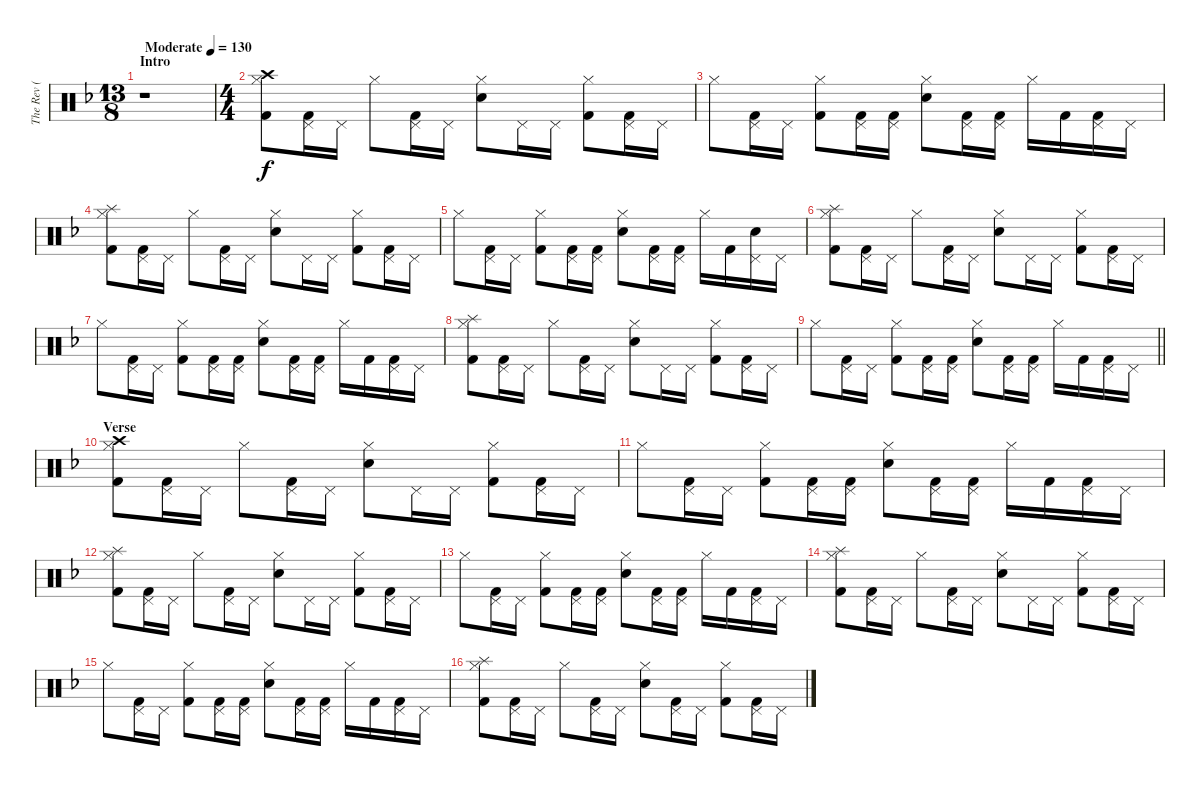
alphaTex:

\track ("The Rev ( Drums )" "The Rev ( ") {instrument percussion}
\staff {score}
\articulation defaults
\ts (13 8)
\section ("" "Intro")
\tempo (130 "Moderate")
\clef neutral
\ks f
r.1{dy f} |
\ts (4 4)
("Crash high (hit)" "Hi-Hat (closed)" "Kick (hit) 2").8 ("Pedal Hi-Hat (hit)" "Kick (hit) 2").16 "Pedal Hi-Hat (hit)".16 "Hi-Hat (closed)".8 ("Pedal Hi-Hat (hit)" "Kick (hit) 2").16 "Pedal Hi-Hat (hit)".16 ("Hi-Hat (closed)" "Snare (hit) 2").8 "Pedal Hi-Hat (hit)".16 "Pedal Hi-Hat (hit)".16 ("Hi-Hat (closed)" "Kick (hit) 2").8 ("Pedal Hi-Hat (hit)" "Kick (hit) 2").16 "Pedal Hi-Hat (hit)".16 |
"Hi-Hat (closed)".8 ("Pedal Hi-Hat (hit)" "Kick (hit) 2").16 "Pedal Hi-Hat (hit)".16 ("Hi-Hat (closed)" "Kick (hit) 2").8 ("Pedal Hi-Hat (hit)" "Kick (hit) 2").16 ("Pedal Hi-Hat (hit)" "Kick (hit) 2").16 ("Hi-Hat (closed)" "Snare (hit) 2").8 ("Pedal Hi-Hat (hit)" "Kick (hit) 2").16 ("Pedal Hi-Hat (hit)" "Kick (hit) 2").16 "Hi-Hat (closed)".16 "Kick (hit) 2".16 ("Pedal Hi-Hat (hit)" "Kick (hit) 2").16 "Pedal Hi-Hat (hit)".16 |
("Splash (hit)" "Hi-Hat (closed)" "Kick (hit) 2").8 ("Pedal Hi-Hat (hit)" "Kick (hit) 2").16 "Pedal Hi-Hat (hit)".16 "Hi-Hat (closed)".8 ("Pedal Hi-Hat (hit)" "Kick (hit) 2").16 "Pedal Hi-Hat (hit)".16 ("Hi-Hat (closed)" "Snare (hit) 2").8 "Pedal Hi-Hat (hit)".16 "Pedal Hi-Hat (hit)".16 ("Hi-Hat (closed)" "Kick (hit) 2").8 ("Pedal Hi-Hat (hit)" "Kick (hit) 2").16 "Pedal Hi-Hat (hit)".16 |
"Hi-Hat (closed)".8 ("Pedal Hi-Hat (hit)" "Kick (hit) 2").16 "Pedal Hi-Hat (hit)".16 ("Hi-Hat (closed)" "Kick (hit) 2").8 ("Pedal Hi-Hat (hit)" "Kick (hit) 2").16 ("Pedal Hi-Hat (hit)" "Kick (hit) 2").16 ("Hi-Hat (closed)" "Snare (hit) 2").8 ("Pedal Hi-Hat (hit)" "Kick (hit) 2").16 ("Pedal Hi-Hat (hit)" "Kick (hit) 2").16 "Hi-Hat (closed)".16 "Kick (hit) 2".16 ("Pedal Hi-Hat (hit)" "Snare (hit) 2").16 "Pedal Hi-Hat (hit)".16 |
("Splash (hit)" "Hi-Hat (closed)" "Kick (hit) 2").8 ("Pedal Hi-Hat (hit)" "Kick (hit) 2").16 "Pedal Hi-Hat (hit)".16 "Hi-Hat (closed)".8 ("Pedal Hi-Hat (hit)" "Kick (hit) 2").16 "Pedal Hi-Hat (hit)".16 ("Hi-Hat (closed)" "Snare (hit) 2").8 "Pedal Hi-Hat (hit)".16 "Pedal Hi-Hat (hit)".16 ("Hi-Hat (closed)" "Kick (hit) 2").8 ("Pedal Hi-Hat (hit)" "Kick (hit) 2").16 "Pedal Hi-Hat (hit)".16 |
"Hi-Hat (closed)".8 ("Pedal Hi-Hat (hit)" "Kick (hit) 2").16 "Pedal Hi-Hat (hit)".16 ("Hi-Hat (closed)" "Kick (hit) 2").8 ("Pedal Hi-Hat (hit)" "Kick (hit) 2").16 ("Pedal Hi-Hat (hit)" "Kick (hit) 2").16 ("Hi-Hat (closed)" "Snare (hit) 2").8 ("Pedal Hi-Hat (hit)" "Kick (hit) 2").16 ("Pedal Hi-Hat (hit)" "Kick (hit) 2").16 "Hi-Hat (closed)".16 "Kick (hit) 2".16 ("Pedal Hi-Hat (hit)" "Kick (hit) 2").16 "Pedal Hi-Hat (hit)".16 |
("Splash (hit)" "Hi-Hat (closed)" "Kick (hit) 2").8 ("Pedal Hi-Hat (hit)" "Kick (hit) 2").16 "Pedal Hi-Hat (hit)".16 "Hi-Hat (closed)".8 ("Pedal Hi-Hat (hit)" "Kick (hit) 2").16 "Pedal Hi-Hat (hit)".16 ("Hi-Hat (closed)" "Snare (hit) 2").8 "Pedal Hi-Hat (hit)".16 "Pedal Hi-Hat (hit)".16 ("Hi-Hat (closed)" "Kick (hit) 2").8 ("Pedal Hi-Hat (hit)" "Kick (hit) 2").16 "Pedal Hi-Hat (hit)".16 |
\barLineRight lightlight "Hi-Hat (closed)".8
("Pedal Hi-Hat (hit)" "Kick (hit) 2").16 "Pedal Hi-Hat (hit)".16 ("Hi-Hat (closed)" "Kick (hit) 2").8 ("Pedal Hi-Hat (hit)" "Kick (hit) 2").16 ("Pedal Hi-Hat (hit)" "Kick (hit) 2").16 ("Hi-Hat (closed)" "Snare (hit) 2").8 ("Pedal Hi-Hat (hit)" "Kick (hit) 2").16 ("Pedal Hi-Hat (hit)" "Kick (hit) 2").16 "Hi-Hat (closed)".16 "Kick (hit) 2".16 ("Pedal Hi-Hat (hit)" "Kick (hit) 2").16 "Pedal Hi-Hat (hit)".16 |
\section ("" "Verse")
("Crash high (hit)" "Hi-Hat (closed)" "Kick (hit) 2").8 ("Pedal Hi-Hat (hit)" "Kick (hit) 2").16 "Pedal Hi-Hat (hit)".16 "Hi-Hat (closed)".8 ("Pedal Hi-Hat (hit)" "Kick (hit) 2").16 "Pedal Hi-Hat (hit)".16 ("Hi-Hat (closed)" "Snare (hit) 2").8 "Pedal Hi-Hat (hit)".16 "Pedal Hi-Hat (hit)".16 ("Hi-Hat (closed)" "Kick (hit) 2").8 ("Pedal Hi-Hat (hit)" "Kick (hit) 2").16 "Pedal Hi-Hat (hit)".16 |
"Hi-Hat (closed)".8 ("Pedal Hi-Hat (hit)" "Kick (hit) 2").16 "Pedal Hi-Hat (hit)".16 ("Hi-Hat (closed)" "Kick (hit) 2").8 ("Pedal Hi-Hat (hit)" "Kick (hit) 2").16 ("Pedal Hi-Hat (hit)" "Kick (hit) 2").16 ("Hi-Hat (closed)" "Snare (hit) 2").8 ("Pedal Hi-Hat (hit)" "Kick (hit) 2").16 ("Pedal Hi-Hat (hit)" "Kick (hit) 2").16 "Hi-Hat (closed)".16 "Kick (hit) 2".16 ("Pedal Hi-Hat (hit)" "Kick (hit) 2").16 "Pedal Hi-Hat (hit)".16 |
("Splash (hit)" "Hi-Hat (closed)" "Kick (hit) 2").8 ("Pedal Hi-Hat (hit)" "Kick (hit) 2").16 "Pedal Hi-Hat (hit)".16 "Hi-Hat (closed)".8 ("Pedal Hi-Hat (hit)" "Kick (hit) 2").16 "Pedal Hi-Hat (hit)".16 ("Hi-Hat (closed)" "Snare (hit) 2").8 "Pedal Hi-Hat (hit)".16 "Pedal Hi-Hat (hit)".16 ("Hi-Hat (closed)" "Kick (hit) 2").8 ("Pedal Hi-Hat (hit)" "Kick (hit) 2").16 "Pedal Hi-Hat (hit)".16 |
"Hi-Hat (closed)".8 ("Pedal Hi-Hat (hit)" "Kick (hit) 2").16 "Pedal Hi-Hat (hit)".16 ("Hi-Hat (closed)" "Kick (hit) 2").8 ("Pedal Hi-Hat (hit)" "Kick (hit) 2").16 ("Pedal Hi-Hat (hit)" "Kick (hit) 2").16 ("Hi-Hat (closed)" "Snare (hit) 2").8 ("Pedal Hi-Hat (hit)" "Kick (hit) 2").16 ("Pedal Hi-Hat (hit)" "Kick (hit) 2").16 "Hi-Hat (closed)".16 "Kick (hit) 2".16 ("Pedal Hi-Hat (hit)" "Kick (hit) 2").16 "Pedal Hi-Hat (hit)".16 |
("Splash (hit)" "Hi-Hat (closed)" "Kick (hit) 2").8 ("Pedal Hi-Hat (hit)" "Kick (hit) 2").16 "Pedal Hi-Hat (hit)".16 "Hi-Hat (closed)".8 ("Pedal Hi-Hat (hit)" "Kick (hit) 2").16 "Pedal Hi-Hat (hit)".16 ("Hi-Hat (closed)" "Snare (hit) 2").8 "Pedal Hi-Hat (hit)".16 "Pedal Hi-Hat (hit)".16 ("Hi-Hat (closed)" "Kick (hit) 2").8 ("Pedal Hi-Hat (hit)" "Kick (hit) 2").16 "Pedal Hi-Hat (hit)".16 |
"Hi-Hat (closed)".8 ("Pedal Hi-Hat (hit)" "Kick (hit) 2").16 "Pedal Hi-Hat (hit)".16 ("Hi-Hat (closed)" "Kick (hit) 2").8 ("Pedal Hi-Hat (hit)" "Kick (hit) 2").16 ("Pedal Hi-Hat (hit)" "Kick (hit) 2").16 ("Hi-Hat (closed)" "Snare (hit) 2").8 ("Pedal Hi-Hat (hit)" "Kick (hit) 2").16 ("Pedal Hi-Hat (hit)" "Kick (hit) 2").16 "Hi-Hat (closed)".16 "Kick (hit) 2".16 ("Pedal Hi-Hat (hit)" "Kick (hit) 2").16 "Pedal Hi-Hat (hit)".16 |
("Splash (hit)" "Hi-Hat (closed)" "Kick (hit) 2").8 ("Pedal Hi-Hat (hit)" "Kick (hit) 2").16 "Pedal Hi-Hat (hit)".16 "Hi-Hat (closed)".8 ("Pedal Hi-Hat (hit)" "Kick (hit) 2").16 "Pedal Hi-Hat (hit)".16 ("Hi-Hat (closed)" "Snare (hit) 2").8 ("Pedal Hi-Hat (hit)" "Kick (hit) 2").16 "Pedal Hi-Hat (hit)".16 ("Hi-Hat (closed)" "Kick (hit) 2").8 ("Pedal Hi-Hat (hit)" "Kick (hit) 2").16 "Pedal Hi-Hat (hit)".16
